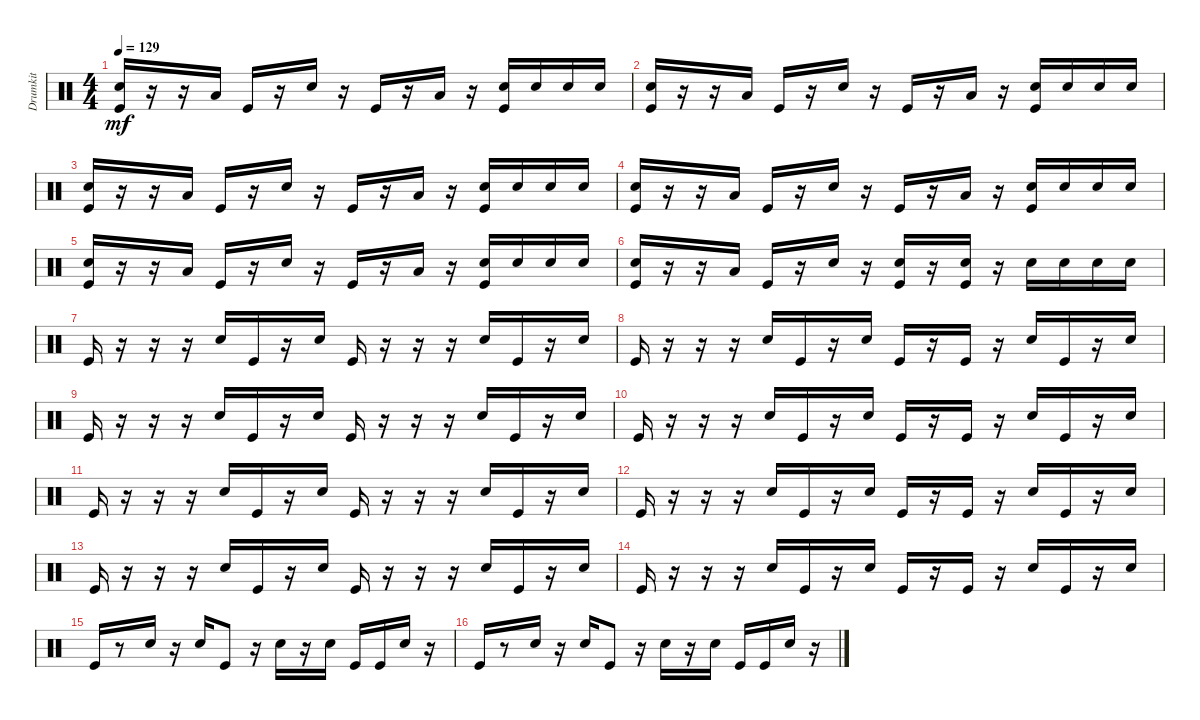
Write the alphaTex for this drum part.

\track ("Drumkit" "Drumkit") {instrument percussion}
\staff {score}
\articulation defaults
\ts (4 4)
\tempo 129
\clef neutral
\ks c
("Kick (hit)" "Snare (hit) 2").16{dy mf} r.16 r.16 "Low Tom (hit)".16 "Kick (hit)".16 r.16 "Snare (hit) 2".16 r.16 "Kick (hit)".16 r.16 "Low Floor Tom (hit)".16 r.16 ("Kick (hit)" "Snare (hit) 2").16 "Snare (hit) 2".16 "Snare (hit) 2".16 "Snare (hit) 2".16 |
("Kick (hit)" "Snare (hit) 2").16 r.16 r.16 "Low Tom (hit)".16 "Kick (hit)".16 r.16 "Snare (hit) 2".16 r.16 "Kick (hit)".16 r.16 "Low Floor Tom (hit)".16 r.16 ("Kick (hit)" "Snare (hit) 2").16 "Snare (hit) 2".16 "Snare (hit) 2".16 "Snare (hit) 2".16 |
("Kick (hit)" "Snare (hit) 2").16 r.16 r.16 "Low Tom (hit)".16 "Kick (hit)".16 r.16 "Snare (hit) 2".16 r.16 "Kick (hit)".16 r.16 "Low Floor Tom (hit)".16 r.16 ("Kick (hit)" "Snare (hit) 2").16 "Snare (hit) 2".16 "Snare (hit) 2".16 "Snare (hit) 2".16 |
("Kick (hit)" "Snare (hit) 2").16 r.16 r.16 "Low Tom (hit)".16 "Kick (hit)".16 r.16 "Snare (hit) 2".16 r.16 "Kick (hit)".16 r.16 "Low Floor Tom (hit)".16 r.16 ("Kick (hit)" "Snare (hit) 2").16 "Snare (hit) 2".16 "Snare (hit) 2".16 "Snare (hit) 2".16 |
("Kick (hit)" "Snare (hit) 2").16 r.16 r.16 "Low Tom (hit)".16 "Kick (hit)".16 r.16 "Snare (hit) 2".16 r.16 "Kick (hit)".16 r.16 "Low Floor Tom (hit)".16 r.16 ("Kick (hit)" "Snare (hit) 2").16 "Snare (hit) 2".16 "Snare (hit) 2".16 "Snare (hit) 2".16 |
("Kick (hit)" "Snare (hit) 2").16 r.16 r.16 "Low Tom (hit)".16 "Kick (hit)".16 r.16 "Snare (hit) 2".16 r.16 ("Snare (hit) 2" "Kick (hit)").16 r.16 ("Snare (hit) 2" "Kick (hit)").16 r.16 "Snare (hit) 2".16 "Snare (hit) 2".16 "Snare (hit) 2".16 "Snare (hit) 2".16 |
"Kick (hit)".16 r.16 r.16 r.16 "Snare (hit) 2".16 "Kick (hit)".16 r.16 "Snare (hit) 2".16 "Kick (hit)".16 r.16 r.16 r.16 "Snare (hit) 2".16 "Kick (hit)".16 r.16 "Snare (hit) 2".16 |
"Kick (hit)".16 r.16 r.16 r.16 "Snare (hit) 2".16 "Kick (hit)".16 r.16 "Snare (hit) 2".16 "Kick (hit)".16 r.16 "Kick (hit)".16 r.16 "Snare (hit) 2".16 "Kick (hit)".16 r.16 "Snare (hit) 2".16 |
"Kick (hit)".16 r.16 r.16 r.16 "Snare (hit) 2".16 "Kick (hit)".16 r.16 "Snare (hit) 2".16 "Kick (hit)".16 r.16 r.16 r.16 "Snare (hit) 2".16 "Kick (hit)".16 r.16 "Snare (hit) 2".16 |
"Kick (hit)".16 r.16 r.16 r.16 "Snare (hit) 2".16 "Kick (hit)".16 r.16 "Snare (hit) 2".16 "Kick (hit)".16 r.16 "Kick (hit)".16 r.16 "Snare (hit) 2".16 "Kick (hit)".16 r.16 "Snare (hit) 2".16 |
"Kick (hit)".16 r.16 r.16 r.16 "Snare (hit) 2".16 "Kick (hit)".16 r.16 "Snare (hit) 2".16 "Kick (hit)".16 r.16 r.16 r.16 "Snare (hit) 2".16 "Kick (hit)".16 r.16 "Snare (hit) 2".16 |
"Kick (hit)".16 r.16 r.16 r.16 "Snare (hit) 2".16 "Kick (hit)".16 r.16 "Snare (hit) 2".16 "Kick (hit)".16 r.16 "Kick (hit)".16 r.16 "Snare (hit) 2".16 "Kick (hit)".16 r.16 "Snare (hit) 2".16 |
"Kick (hit)".16 r.16 r.16 r.16 "Snare (hit) 2".16 "Kick (hit)".16 r.16 "Snare (hit) 2".16 "Kick (hit)".16 r.16 r.16 r.16 "Snare (hit) 2".16 "Kick (hit)".16 r.16 "Snare (hit) 2".16 |
"Kick (hit)".16 r.16 r.16 r.16 "Snare (hit) 2".16 "Kick (hit)".16 r.16 "Snare (hit) 2".16 "Kick (hit)".16 r.16 "Kick (hit)".16 r.16 "Snare (hit) 2".16 "Kick (hit)".16 r.16 "Snare (hit) 2".16 |
"Kick (hit)".16 r.8 "Snare (hit) 2".16 r.16 "Snare (hit) 2".16 "Kick (hit)".8 r.16 "Snare (hit) 2".16 r.16 "Snare (hit) 2".16 "Kick (hit)".16 "Kick (hit)".16 "Snare (hit) 2".16 r.16 |
"Kick (hit)".16 r.8 "Snare (hit) 2".16 r.16 "Snare (hit) 2".16 "Kick (hit)".8 r.16 "Snare (hit) 2".16 r.16 "Snare (hit) 2".16 "Kick (hit)".16 "Kick (hit)".16 "Snare (hit) 2".16 r.16
